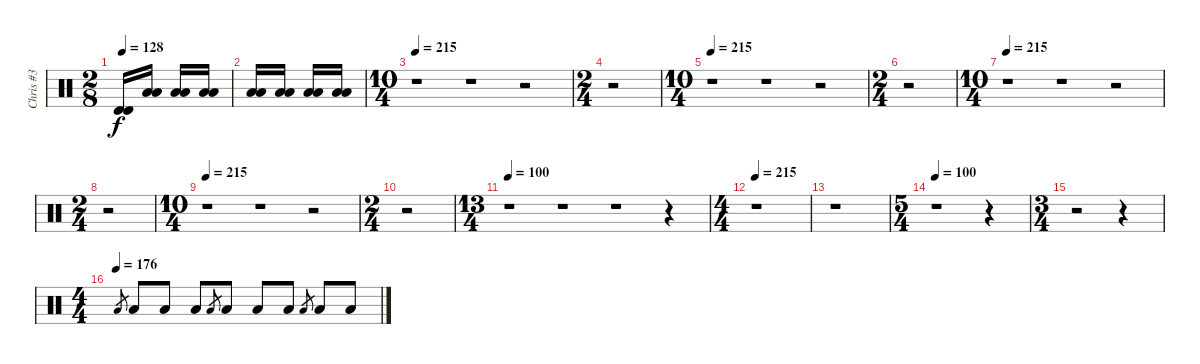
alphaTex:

\track ("Chris #3" "Chris #3") {instrument percussion}
\staff {score}
\articulation defaults
\ts (2 8)
\tempo 128
\clef neutral
\ks c
("Timbale high (hit)" "Timbale high (hit)").16{dy f} ("Low Floor Tom (hit)" "Low Floor Tom (hit)").16 ("Low Floor Tom (hit)" "Low Floor Tom (hit)").16 ("Low Floor Tom (hit)" "Low Floor Tom (hit)").16 |
("Low Floor Tom (hit)" "Low Floor Tom (hit)").16 ("Low Floor Tom (hit)" "Low Floor Tom (hit)").16 ("Low Floor Tom (hit)" "Low Floor Tom (hit)").16 ("Low Floor Tom (hit)" "Low Floor Tom (hit)").16 |
\ts (10 4)
\tempo 215
r.1 r.1 r.2 |
\ts (2 4)
r.2 |
\ts (10 4)
\tempo 215
r.1 r.1 r.2 |
\ts (2 4)
r.2 |
\ts (10 4)
\tempo 215
r.1 r.1 r.2 |
\ts (2 4)
r.2 |
\ts (10 4)
\tempo 215
r.1 r.1 r.2 |
\ts (2 4)
r.2 |
\ts (13 4)
\tempo 100
r.1 r.1 r.1 r.4 |
\ts (4 4)
\tempo 215
r.1 |
r.1 |
\ts (5 4)
\tempo 100
r.1 r.4 |
\ts (3 4)
r.2 r.4 |
\ts (4 4)
\tempo (176)
"Low Floor Tom (hit)"{sl}.8{gr} "Low Floor Tom (hit)".8{volume 16} "Low Floor Tom (hit)".8 "Low Floor Tom (hit)".8 "Low Floor Tom (hit)"{sl}.8{gr} "Low Floor Tom (hit)".8 "Low Floor Tom (hit)".8 "Low Floor Tom (hit)".8 "Low Floor Tom (hit)"{sl}.8{gr} "Low Floor Tom (hit)".8 "Low Floor Tom (hit)".8
